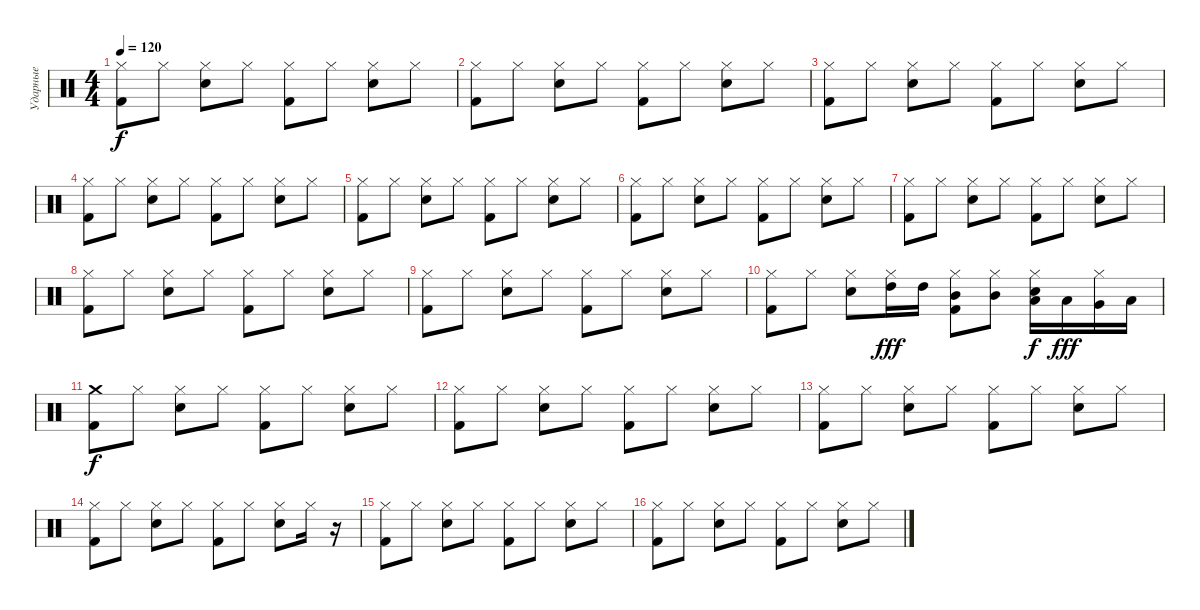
\track ("Ударные" "Ударные") {instrument percussion}
\staff {score}
\articulation defaults
\ts (4 4)
\tempo 120
\clef neutral
\ks c
("Kick (hit) 2" "Hi-Hat (closed)").8{dy f} "Hi-Hat (closed)".8 ("Electric Snare (hit)" "Hi-Hat (closed)").8 "Hi-Hat (closed)".8 ("Kick (hit) 2" "Hi-Hat (closed)").8 "Hi-Hat (closed)".8 ("Electric Snare (hit)" "Hi-Hat (closed)").8 "Hi-Hat (closed)".8 |
("Kick (hit) 2" "Hi-Hat (closed)").8 "Hi-Hat (closed)".8 ("Electric Snare (hit)" "Hi-Hat (closed)").8 "Hi-Hat (closed)".8 ("Kick (hit) 2" "Hi-Hat (closed)").8 "Hi-Hat (closed)".8 ("Electric Snare (hit)" "Hi-Hat (closed)").8 "Hi-Hat (closed)".8 |
("Kick (hit) 2" "Hi-Hat (closed)").8 "Hi-Hat (closed)".8 ("Electric Snare (hit)" "Hi-Hat (closed)").8 "Hi-Hat (closed)".8 ("Kick (hit) 2" "Hi-Hat (closed)").8 "Hi-Hat (closed)".8 ("Electric Snare (hit)" "Hi-Hat (closed)").8 "Hi-Hat (closed)".8 |
("Kick (hit) 2" "Hi-Hat (closed)").8 "Hi-Hat (closed)".8 ("Electric Snare (hit)" "Hi-Hat (closed)").8 "Hi-Hat (closed)".8 ("Kick (hit) 2" "Hi-Hat (closed)").8 "Hi-Hat (closed)".8 ("Electric Snare (hit)" "Hi-Hat (closed)").8 "Hi-Hat (closed)".8 |
("Kick (hit) 2" "Hi-Hat (closed)").8 "Hi-Hat (closed)".8 ("Electric Snare (hit)" "Hi-Hat (closed)").8 "Hi-Hat (closed)".8 ("Kick (hit) 2" "Hi-Hat (closed)").8 "Hi-Hat (closed)".8 ("Electric Snare (hit)" "Hi-Hat (closed)").8 "Hi-Hat (closed)".8 |
("Kick (hit) 2" "Hi-Hat (closed)").8 "Hi-Hat (closed)".8 ("Electric Snare (hit)" "Hi-Hat (closed)").8 "Hi-Hat (closed)".8 ("Kick (hit) 2" "Hi-Hat (closed)").8 "Hi-Hat (closed)".8 ("Electric Snare (hit)" "Hi-Hat (closed)").8 "Hi-Hat (closed)".8 |
("Kick (hit) 2" "Hi-Hat (closed)").8 "Hi-Hat (closed)".8 ("Electric Snare (hit)" "Hi-Hat (closed)").8 "Hi-Hat (closed)".8 ("Kick (hit) 2" "Hi-Hat (closed)").8 "Hi-Hat (closed)".8 ("Electric Snare (hit)" "Hi-Hat (closed)").8 "Hi-Hat (closed)".8 |
("Kick (hit) 2" "Hi-Hat (closed)").8 "Hi-Hat (closed)".8 ("Electric Snare (hit)" "Hi-Hat (closed)").8 "Hi-Hat (closed)".8 ("Kick (hit) 2" "Hi-Hat (closed)").8 "Hi-Hat (closed)".8 ("Electric Snare (hit)" "Hi-Hat (closed)").8 "Hi-Hat (closed)".8 |
("Kick (hit) 2" "Hi-Hat (closed)").8 "Hi-Hat (closed)".8 ("Electric Snare (hit)" "Hi-Hat (closed)").8 "Hi-Hat (closed)".8 ("Kick (hit) 2" "Hi-Hat (closed)").8 "Hi-Hat (closed)".8 ("Electric Snare (hit)" "Hi-Hat (closed)").8 "Hi-Hat (closed)".8 |
("Kick (hit) 2" "Hi-Hat (closed)").8 "Hi-Hat (closed)".8 ("Electric Snare (hit)" "Hi-Hat (closed)").8 ("High Tom (hit)" "Hi-Hat (closed)").16{dy fff} "High Tom (hit)".16 ("Mid Tom (hit)" "Kick (hit) 2" "Hi-Hat (closed)").8 ("Mid Tom (hit)" "Hi-Hat (closed)").8 ("Low Tom (hit)" "Electric Snare (hit)" "Hi-Hat (closed)").16{dy f} "Low Tom (hit)".16{dy fff} ("Very Low Tom (hit)" "Hi-Hat (closed)").16 "Low Floor Tom (hit)".16 |
("Kick (hit) 2" "Crash medium (hit)").8{dy f} "Hi-Hat (closed)".8 ("Electric Snare (hit)" "Hi-Hat (closed)").8 "Hi-Hat (closed)".8 ("Kick (hit) 2" "Hi-Hat (closed)").8 "Hi-Hat (closed)".8 ("Electric Snare (hit)" "Hi-Hat (closed)").8 "Hi-Hat (closed)".8 |
("Kick (hit) 2" "Hi-Hat (closed)").8 "Hi-Hat (closed)".8 ("Electric Snare (hit)" "Hi-Hat (closed)").8 "Hi-Hat (closed)".8 ("Kick (hit) 2" "Hi-Hat (closed)").8 "Hi-Hat (closed)".8 ("Electric Snare (hit)" "Hi-Hat (closed)").8 "Hi-Hat (closed)".8 |
("Kick (hit) 2" "Hi-Hat (closed)").8 "Hi-Hat (closed)".8 ("Electric Snare (hit)" "Hi-Hat (closed)").8 "Hi-Hat (closed)".8 ("Kick (hit) 2" "Hi-Hat (closed)").8 "Hi-Hat (closed)".8 ("Electric Snare (hit)" "Hi-Hat (closed)").8 "Hi-Hat (closed)".8 |
("Kick (hit) 2" "Hi-Hat (closed)").8 "Hi-Hat (closed)".8 ("Electric Snare (hit)" "Hi-Hat (closed)").8 "Hi-Hat (closed)".8 ("Kick (hit) 2" "Hi-Hat (closed)").8 "Hi-Hat (closed)".8 ("Electric Snare (hit)" "Hi-Hat (closed)").8 "Hi-Hat (closed)".16 r.16 |
("Kick (hit) 2" "Hi-Hat (closed)").8 "Hi-Hat (closed)".8 ("Electric Snare (hit)" "Hi-Hat (closed)").8 "Hi-Hat (closed)".8 ("Kick (hit) 2" "Hi-Hat (closed)").8 "Hi-Hat (closed)".8 ("Electric Snare (hit)" "Hi-Hat (closed)").8 "Hi-Hat (closed)".8 |
("Kick (hit) 2" "Hi-Hat (closed)").8 "Hi-Hat (closed)".8 ("Electric Snare (hit)" "Hi-Hat (closed)").8 "Hi-Hat (closed)".8 ("Kick (hit) 2" "Hi-Hat (closed)").8 "Hi-Hat (closed)".8 ("Electric Snare (hit)" "Hi-Hat (closed)").8 "Hi-Hat (closed)".8
